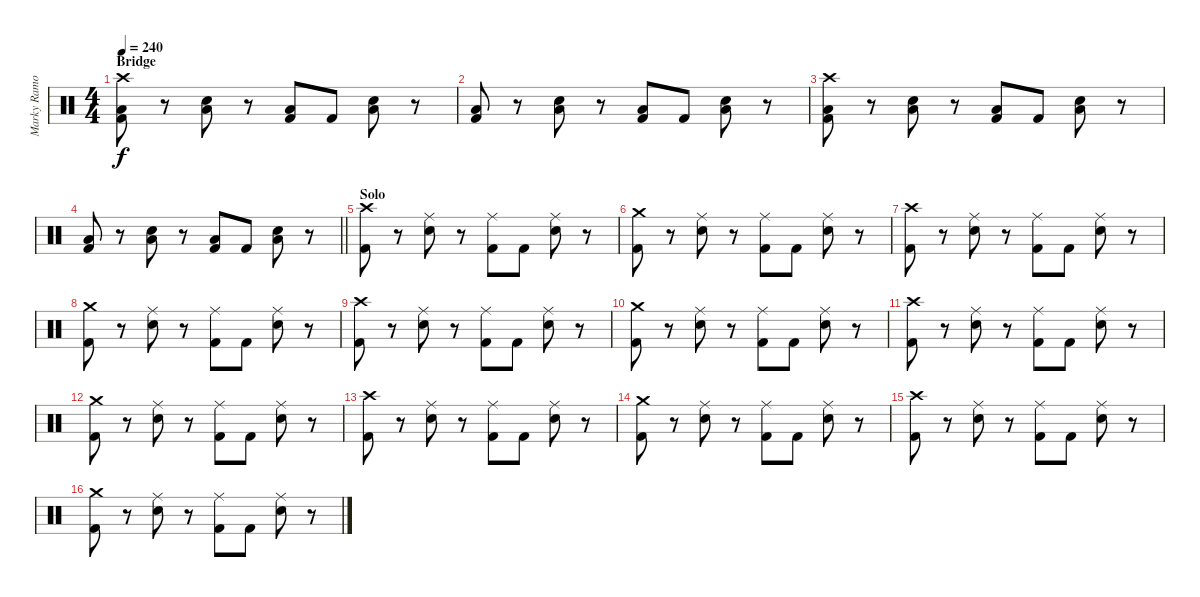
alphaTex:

\track ("Marky Ramone" "Marky Ramo") {instrument percussion}
\staff {score}
\articulation defaults
\ts (4 4)
\section ("" "Bridge")
\tempo 240
\clef neutral
\ks c
("Kick (hit) 2" "Low Floor Tom (hit)" "Crash high (hit)").8{dy f} r.8 ("Electric Snare (hit)" "Low Floor Tom (hit)").8 r.8 ("Kick (hit) 2" "Low Floor Tom (hit)").8 "Kick (hit) 2".8 ("Electric Snare (hit)" "Low Floor Tom (hit)").8 r.8 |
("Kick (hit) 2" "Low Floor Tom (hit)").8 r.8 ("Electric Snare (hit)" "Low Floor Tom (hit)").8 r.8 ("Kick (hit) 2" "Low Floor Tom (hit)").8 "Kick (hit) 2".8 ("Electric Snare (hit)" "Low Floor Tom (hit)").8 r.8 |
("Kick (hit) 2" "Low Floor Tom (hit)" "Crash high (hit)").8 r.8 ("Electric Snare (hit)" "Low Floor Tom (hit)").8 r.8 ("Kick (hit) 2" "Low Floor Tom (hit)").8 "Kick (hit) 2".8 ("Electric Snare (hit)" "Low Floor Tom (hit)").8 r.8 |
\barLineRight lightlight
("Kick (hit) 2" "Low Floor Tom (hit)").8 r.8 ("Electric Snare (hit)" "Low Floor Tom (hit)").8 r.8 ("Kick (hit) 2" "Low Floor Tom (hit)").8 "Kick (hit) 2".8 ("Electric Snare (hit)" "Low Floor Tom (hit)").8 r.8 |
\section ("" "Solo")
("Kick (hit) 2" "Crash high (hit)").8 r.8 ("Electric Snare (hit)" "Ride (middle)").8 r.8 ("Kick (hit) 2" "Ride (middle)").8 "Kick (hit) 2".8 ("Electric Snare (hit)" "Ride (middle)").8 r.8 |
("Kick (hit) 2" "Crash medium (hit)").8 r.8 ("Electric Snare (hit)" "Ride (middle)").8 r.8 ("Kick (hit) 2" "Ride (middle)").8 "Kick (hit) 2".8 ("Electric Snare (hit)" "Ride (middle)").8 r.8 |
("Kick (hit) 2" "Crash high (hit)").8 r.8 ("Electric Snare (hit)" "Ride (middle)").8 r.8 ("Kick (hit) 2" "Ride (middle)").8 "Kick (hit) 2".8 ("Electric Snare (hit)" "Ride (middle)").8 r.8 |
("Kick (hit) 2" "Crash medium (hit)").8 r.8 ("Electric Snare (hit)" "Ride (middle)").8 r.8 ("Kick (hit) 2" "Ride (middle)").8 "Kick (hit) 2".8 ("Electric Snare (hit)" "Ride (middle)").8 r.8 |
("Kick (hit) 2" "Crash high (hit)").8 r.8 ("Electric Snare (hit)" "Ride (middle)").8 r.8 ("Kick (hit) 2" "Ride (middle)").8 "Kick (hit) 2".8 ("Electric Snare (hit)" "Ride (middle)").8 r.8 |
("Kick (hit) 2" "Crash medium (hit)").8 r.8 ("Electric Snare (hit)" "Ride (middle)").8 r.8 ("Kick (hit) 2" "Ride (middle)").8 "Kick (hit) 2".8 ("Electric Snare (hit)" "Ride (middle)").8 r.8 |
("Kick (hit) 2" "Crash high (hit)").8 r.8 ("Electric Snare (hit)" "Ride (middle)").8 r.8 ("Kick (hit) 2" "Ride (middle)").8 "Kick (hit) 2".8 ("Electric Snare (hit)" "Ride (middle)").8 r.8 |
("Kick (hit) 2" "Crash medium (hit)").8 r.8 ("Electric Snare (hit)" "Ride (middle)").8 r.8 ("Kick (hit) 2" "Ride (middle)").8 "Kick (hit) 2".8 ("Electric Snare (hit)" "Ride (middle)").8 r.8 |
("Kick (hit) 2" "Crash high (hit)").8 r.8 ("Electric Snare (hit)" "Ride (middle)").8 r.8 ("Kick (hit) 2" "Ride (middle)").8 "Kick (hit) 2".8 ("Electric Snare (hit)" "Ride (middle)").8 r.8 |
("Kick (hit) 2" "Crash medium (hit)").8 r.8 ("Electric Snare (hit)" "Ride (middle)").8 r.8 ("Kick (hit) 2" "Ride (middle)").8 "Kick (hit) 2".8 ("Electric Snare (hit)" "Ride (middle)").8 r.8 |
("Kick (hit) 2" "Crash high (hit)").8 r.8 ("Electric Snare (hit)" "Ride (middle)").8 r.8 ("Kick (hit) 2" "Ride (middle)").8 "Kick (hit) 2".8 ("Electric Snare (hit)" "Ride (middle)").8 r.8 |
("Kick (hit) 2" "Crash medium (hit)").8 r.8 ("Electric Snare (hit)" "Ride (middle)").8 r.8 ("Kick (hit) 2" "Ride (middle)").8 "Kick (hit) 2".8 ("Electric Snare (hit)" "Ride (middle)").8 r.8
